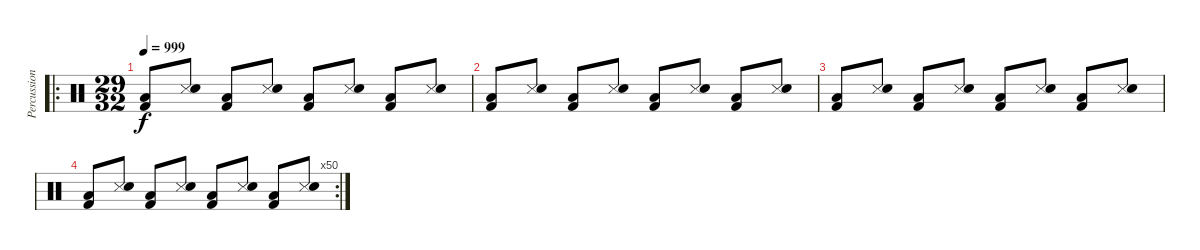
\track ("Percussion" "Percussion") {instrument percussion}
\staff {score}
\articulation defaults
\ro
\ts (29 32)
\tempo 999
\clef neutral
\ks c
("Low Tom (hit)" "Kick (hit) 2").8{dy f} ("Snare (side stick) 3" "Electric Snare (hit)").8 ("Low Tom (hit)" "Kick (hit) 2").8 ("Snare (side stick) 3" "Electric Snare (hit)").8 ("Low Tom (hit)" "Kick (hit) 2").8 ("Snare (side stick) 3" "Electric Snare (hit)").8 ("Low Tom (hit)" "Kick (hit) 2").8 ("Snare (side stick) 3" "Electric Snare (hit)").8 |
("Low Tom (hit)" "Kick (hit) 2").8 ("Snare (side stick) 3" "Electric Snare (hit)").8 ("Low Tom (hit)" "Kick (hit) 2").8 ("Snare (side stick) 3" "Electric Snare (hit)").8 ("Low Tom (hit)" "Kick (hit) 2").8 ("Snare (side stick) 3" "Electric Snare (hit)").8 ("Low Tom (hit)" "Kick (hit) 2").8 ("Snare (side stick) 3" "Electric Snare (hit)").8 |
("Low Tom (hit)" "Kick (hit) 2").8 ("Snare (side stick) 3" "Electric Snare (hit)").8 ("Low Tom (hit)" "Kick (hit) 2").8 ("Snare (side stick) 3" "Electric Snare (hit)").8 ("Low Tom (hit)" "Kick (hit) 2").8 ("Snare (side stick) 3" "Electric Snare (hit)").8 ("Low Tom (hit)" "Kick (hit) 2").8 ("Snare (side stick) 3" "Electric Snare (hit)").8 |
\rc 50
("Low Tom (hit)" "Kick (hit) 2").8 ("Snare (side stick) 3" "Electric Snare (hit)").8 ("Low Tom (hit)" "Kick (hit) 2").8 ("Snare (side stick) 3" "Electric Snare (hit)").8 ("Low Tom (hit)" "Kick (hit) 2").8 ("Snare (side stick) 3" "Electric Snare (hit)").8 ("Low Tom (hit)" "Kick (hit) 2").8 ("Snare (side stick) 3" "Electric Snare (hit)").8
